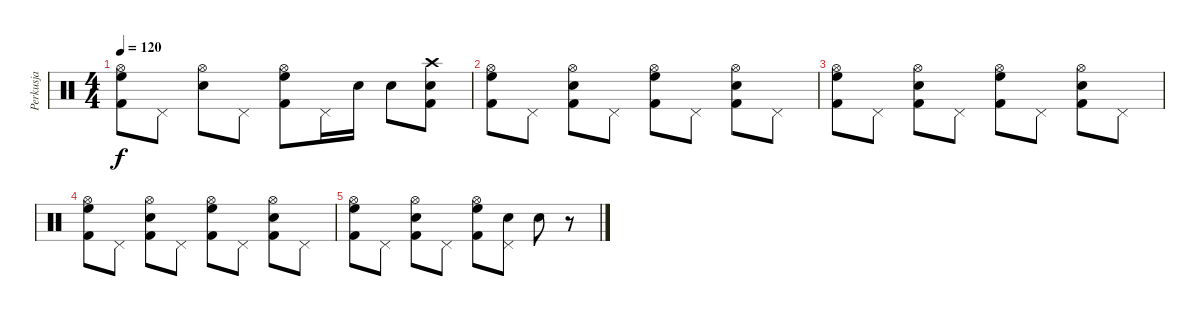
\track ("Perkusja" "Perkusja") {instrument percussion}
\staff {score}
\articulation defaults
\ts (4 4)
\tempo 120
\clef neutral
\ks c
("Hi-Hat (open)" "High Floor Tom (hit)" "Kick (hit) 2").8{dy f} "Pedal Hi-Hat (hit)".8 ("Hi-Hat (open)" "Snare (hit) 2").8 "Pedal Hi-Hat (hit)".8 ("Hi-Hat (open)" "High Floor Tom (hit)" "Kick (hit) 2").8 "Pedal Hi-Hat (hit)".16 "Snare (hit) 2".16 "Snare (hit) 2".8 ("Crash high (hit)" "Snare (hit) 2" "Kick (hit) 2").8 |
("Hi-Hat (open)" "High Floor Tom (hit)" "Kick (hit) 2").8 "Pedal Hi-Hat (hit)".8 ("Hi-Hat (open)" "Snare (hit) 2" "Kick (hit) 2").8 "Pedal Hi-Hat (hit)".8 ("Hi-Hat (open)" "High Floor Tom (hit)" "Kick (hit) 2").8 "Pedal Hi-Hat (hit)".8 ("Hi-Hat (open)" "Snare (hit) 2" "Kick (hit) 2").8 "Pedal Hi-Hat (hit)".8 |
("Hi-Hat (open)" "High Floor Tom (hit)" "Kick (hit) 2").8 "Pedal Hi-Hat (hit)".8 ("Hi-Hat (open)" "Snare (hit) 2" "Kick (hit) 2").8 "Pedal Hi-Hat (hit)".8 ("Hi-Hat (open)" "High Floor Tom (hit)" "Kick (hit) 2").8 "Pedal Hi-Hat (hit)".8 ("Hi-Hat (open)" "Snare (hit) 2" "Kick (hit) 2").8 "Pedal Hi-Hat (hit)".8 |
("Hi-Hat (open)" "High Floor Tom (hit)" "Kick (hit) 2").8 "Pedal Hi-Hat (hit)".8 ("Hi-Hat (open)" "Snare (hit) 2" "Kick (hit) 2").8 "Pedal Hi-Hat (hit)".8 ("Hi-Hat (open)" "High Floor Tom (hit)" "Kick (hit) 2").8 "Pedal Hi-Hat (hit)".8 ("Hi-Hat (open)" "Snare (hit) 2" "Kick (hit) 2").8 "Pedal Hi-Hat (hit)".8 |
("Hi-Hat (open)" "High Floor Tom (hit)" "Kick (hit) 2").8 "Pedal Hi-Hat (hit)".8 ("Hi-Hat (open)" "Snare (hit) 2" "Kick (hit) 2").8 "Pedal Hi-Hat (hit)".8 ("Hi-Hat (open)" "High Floor Tom (hit)" "Kick (hit) 2").8 ("Pedal Hi-Hat (hit)" "Snare (hit) 2").8 "Snare (hit) 2".8 r.8
